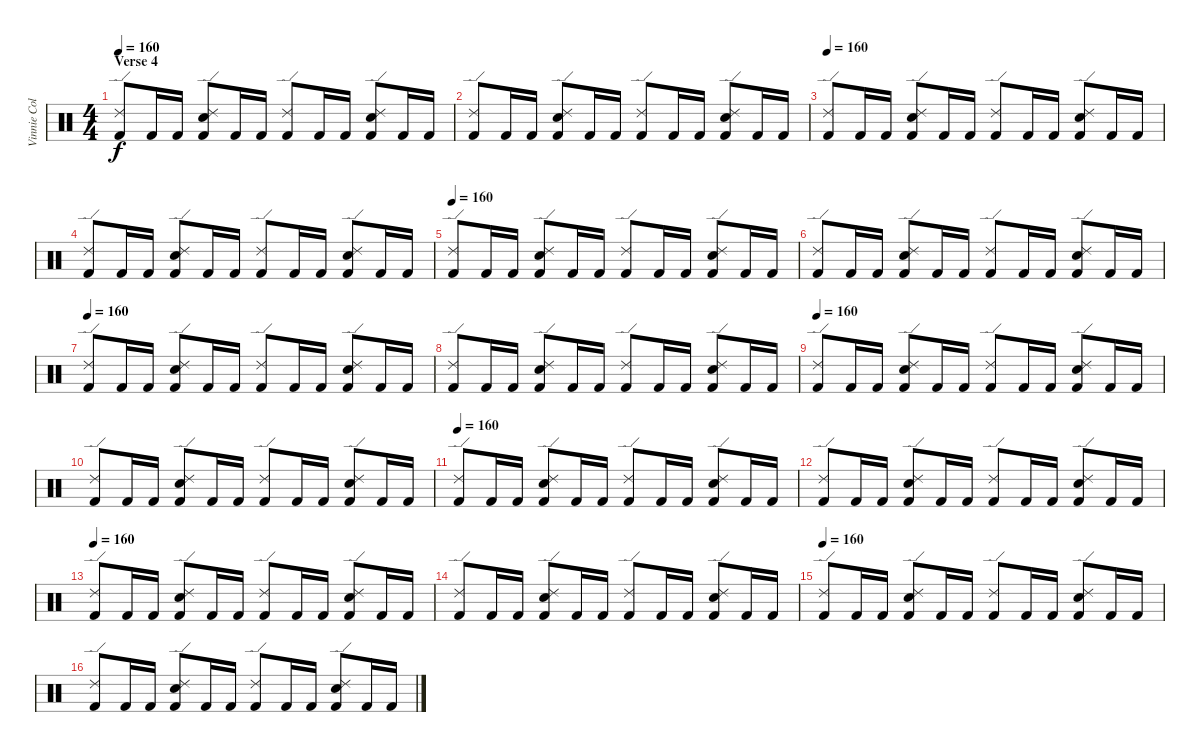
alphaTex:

\track ("Vinnie Colaiuta" "Vinnie Col") {instrument percussion}
\staff {score}
\articulation defaults
\ts (4 4)
\section ("" "Verse 4")
\tempo 160
\clef neutral
\ks c
("Ride (edge) 2" "Kick (hit) 2").8{dy f} "Kick (hit) 2".16 "Kick (hit) 2".16 ("Ride (edge) 2" "Snare (hit) 2" "Kick (hit) 2").8 "Kick (hit) 2".16 "Kick (hit) 2".16 ("Ride (edge) 2" "Kick (hit) 2").8 "Kick (hit) 2".16 "Kick (hit) 2".16 ("Ride (edge) 2" "Snare (hit) 2" "Kick (hit) 2").8 "Kick (hit) 2".16 "Kick (hit) 2".16 |
("Ride (edge) 2" "Kick (hit) 2").8 "Kick (hit) 2".16 "Kick (hit) 2".16 ("Ride (edge) 2" "Snare (hit) 2" "Kick (hit) 2").8 "Kick (hit) 2".16 "Kick (hit) 2".16 ("Ride (edge) 2" "Kick (hit) 2").8 "Kick (hit) 2".16 "Kick (hit) 2".16 ("Ride (edge) 2" "Snare (hit) 2" "Kick (hit) 2").8 "Kick (hit) 2".16 "Kick (hit) 2".16 |
\tempo 160
("Ride (edge) 2" "Kick (hit) 2").8 "Kick (hit) 2".16 "Kick (hit) 2".16 ("Ride (edge) 2" "Snare (hit) 2" "Kick (hit) 2").8 "Kick (hit) 2".16 "Kick (hit) 2".16 ("Ride (edge) 2" "Kick (hit) 2").8 "Kick (hit) 2".16 "Kick (hit) 2".16 ("Ride (edge) 2" "Snare (hit) 2" "Kick (hit) 2").8 "Kick (hit) 2".16 "Kick (hit) 2".16 |
("Ride (edge) 2" "Kick (hit) 2").8 "Kick (hit) 2".16 "Kick (hit) 2".16 ("Ride (edge) 2" "Snare (hit) 2" "Kick (hit) 2").8 "Kick (hit) 2".16 "Kick (hit) 2".16 ("Ride (edge) 2" "Kick (hit) 2").8 "Kick (hit) 2".16 "Kick (hit) 2".16 ("Ride (edge) 2" "Snare (hit) 2" "Kick (hit) 2").8 "Kick (hit) 2".16 "Kick (hit) 2".16 |
\tempo 160
("Ride (edge) 2" "Kick (hit) 2").8 "Kick (hit) 2".16 "Kick (hit) 2".16 ("Ride (edge) 2" "Snare (hit) 2" "Kick (hit) 2").8 "Kick (hit) 2".16 "Kick (hit) 2".16 ("Ride (edge) 2" "Kick (hit) 2").8 "Kick (hit) 2".16 "Kick (hit) 2".16 ("Ride (edge) 2" "Snare (hit) 2" "Kick (hit) 2").8 "Kick (hit) 2".16 "Kick (hit) 2".16 |
("Ride (edge) 2" "Kick (hit) 2").8 "Kick (hit) 2".16 "Kick (hit) 2".16 ("Ride (edge) 2" "Snare (hit) 2" "Kick (hit) 2").8 "Kick (hit) 2".16 "Kick (hit) 2".16 ("Ride (edge) 2" "Kick (hit) 2").8 "Kick (hit) 2".16 "Kick (hit) 2".16 ("Ride (edge) 2" "Snare (hit) 2" "Kick (hit) 2").8 "Kick (hit) 2".16 "Kick (hit) 2".16 |
\tempo 160
("Ride (edge) 2" "Kick (hit) 2").8 "Kick (hit) 2".16 "Kick (hit) 2".16 ("Ride (edge) 2" "Snare (hit) 2" "Kick (hit) 2").8 "Kick (hit) 2".16 "Kick (hit) 2".16 ("Ride (edge) 2" "Kick (hit) 2").8 "Kick (hit) 2".16 "Kick (hit) 2".16 ("Ride (edge) 2" "Snare (hit) 2" "Kick (hit) 2").8 "Kick (hit) 2".16 "Kick (hit) 2".16 |
("Ride (edge) 2" "Kick (hit) 2").8 "Kick (hit) 2".16 "Kick (hit) 2".16 ("Ride (edge) 2" "Snare (hit) 2" "Kick (hit) 2").8 "Kick (hit) 2".16 "Kick (hit) 2".16 ("Ride (edge) 2" "Kick (hit) 2").8 "Kick (hit) 2".16 "Kick (hit) 2".16 ("Ride (edge) 2" "Snare (hit) 2" "Kick (hit) 2").8 "Kick (hit) 2".16 "Kick (hit) 2".16 |
\tempo 160
("Ride (edge) 2" "Kick (hit) 2").8 "Kick (hit) 2".16 "Kick (hit) 2".16 ("Ride (edge) 2" "Snare (hit) 2" "Kick (hit) 2").8 "Kick (hit) 2".16 "Kick (hit) 2".16 ("Ride (edge) 2" "Kick (hit) 2").8 "Kick (hit) 2".16 "Kick (hit) 2".16 ("Ride (edge) 2" "Snare (hit) 2" "Kick (hit) 2").8 "Kick (hit) 2".16 "Kick (hit) 2".16 |
("Ride (edge) 2" "Kick (hit) 2").8 "Kick (hit) 2".16 "Kick (hit) 2".16 ("Ride (edge) 2" "Snare (hit) 2" "Kick (hit) 2").8 "Kick (hit) 2".16 "Kick (hit) 2".16 ("Ride (edge) 2" "Kick (hit) 2").8 "Kick (hit) 2".16 "Kick (hit) 2".16 ("Ride (edge) 2" "Snare (hit) 2" "Kick (hit) 2").8 "Kick (hit) 2".16 "Kick (hit) 2".16 |
\tempo 160
("Ride (edge) 2" "Kick (hit) 2").8 "Kick (hit) 2".16 "Kick (hit) 2".16 ("Ride (edge) 2" "Snare (hit) 2" "Kick (hit) 2").8 "Kick (hit) 2".16 "Kick (hit) 2".16 ("Ride (edge) 2" "Kick (hit) 2").8 "Kick (hit) 2".16 "Kick (hit) 2".16 ("Ride (edge) 2" "Snare (hit) 2" "Kick (hit) 2").8 "Kick (hit) 2".16 "Kick (hit) 2".16 |
("Ride (edge) 2" "Kick (hit) 2").8 "Kick (hit) 2".16 "Kick (hit) 2".16 ("Ride (edge) 2" "Snare (hit) 2" "Kick (hit) 2").8 "Kick (hit) 2".16 "Kick (hit) 2".16 ("Ride (edge) 2" "Kick (hit) 2").8 "Kick (hit) 2".16 "Kick (hit) 2".16 ("Ride (edge) 2" "Snare (hit) 2" "Kick (hit) 2").8 "Kick (hit) 2".16 "Kick (hit) 2".16 |
\tempo 160
("Ride (edge) 2" "Kick (hit) 2").8 "Kick (hit) 2".16 "Kick (hit) 2".16 ("Ride (edge) 2" "Snare (hit) 2" "Kick (hit) 2").8 "Kick (hit) 2".16 "Kick (hit) 2".16 ("Ride (edge) 2" "Kick (hit) 2").8 "Kick (hit) 2".16 "Kick (hit) 2".16 ("Ride (edge) 2" "Snare (hit) 2" "Kick (hit) 2").8 "Kick (hit) 2".16 "Kick (hit) 2".16 |
("Ride (edge) 2" "Kick (hit) 2").8 "Kick (hit) 2".16 "Kick (hit) 2".16 ("Ride (edge) 2" "Snare (hit) 2" "Kick (hit) 2").8 "Kick (hit) 2".16 "Kick (hit) 2".16 ("Ride (edge) 2" "Kick (hit) 2").8 "Kick (hit) 2".16 "Kick (hit) 2".16 ("Ride (edge) 2" "Snare (hit) 2" "Kick (hit) 2").8 "Kick (hit) 2".16 "Kick (hit) 2".16 |
\tempo 160
("Ride (edge) 2" "Kick (hit) 2").8 "Kick (hit) 2".16 "Kick (hit) 2".16 ("Ride (edge) 2" "Snare (hit) 2" "Kick (hit) 2").8 "Kick (hit) 2".16 "Kick (hit) 2".16 ("Ride (edge) 2" "Kick (hit) 2").8 "Kick (hit) 2".16 "Kick (hit) 2".16 ("Ride (edge) 2" "Snare (hit) 2" "Kick (hit) 2").8 "Kick (hit) 2".16 "Kick (hit) 2".16 |
("Ride (edge) 2" "Kick (hit) 2").8 "Kick (hit) 2".16 "Kick (hit) 2".16 ("Ride (edge) 2" "Snare (hit) 2" "Kick (hit) 2").8 "Kick (hit) 2".16 "Kick (hit) 2".16 ("Ride (edge) 2" "Kick (hit) 2").8 "Kick (hit) 2".16 "Kick (hit) 2".16 ("Ride (edge) 2" "Snare (hit) 2" "Kick (hit) 2").8 "Kick (hit) 2".16 "Kick (hit) 2".16
